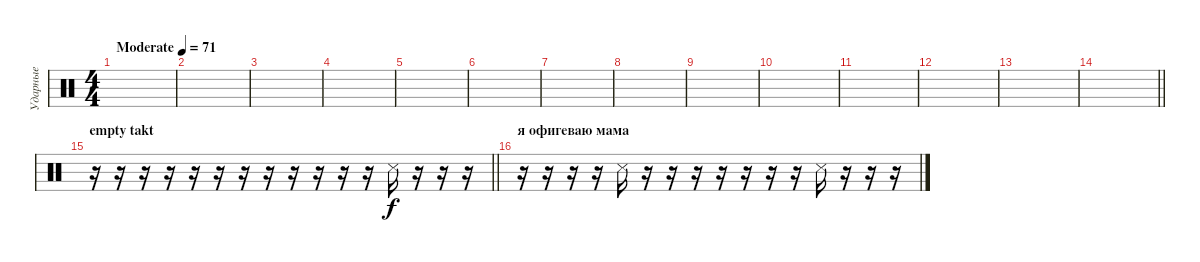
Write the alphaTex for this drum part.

\track ("Ударные" "Ударные") {instrument percussion}
\staff
\articulation defaults
\ts (4 4)
\tempo (71 "Moderate")
\clef neutral
\ks c
|
|
|
|
|
|
|
|
|
|
|
|
|
\barLineRight lightlight
|
\section ("" "empty takt")
\barLineRight lightlight
r.16 r.16 r.16 r.16 r.16 r.16 r.16 r.16 r.16 r.16 r.16 r.16 "Snare (side stick) 3".16 r.16 r.16 r.16 |
\section ("" "я офигеваю мама")
r.16 r.16 r.16 r.16 "Snare (side stick) 3".16 r.16 r.16 r.16 r.16 r.16 r.16 r.16 "Snare (side stick) 3".16 r.16 r.16 r.16
